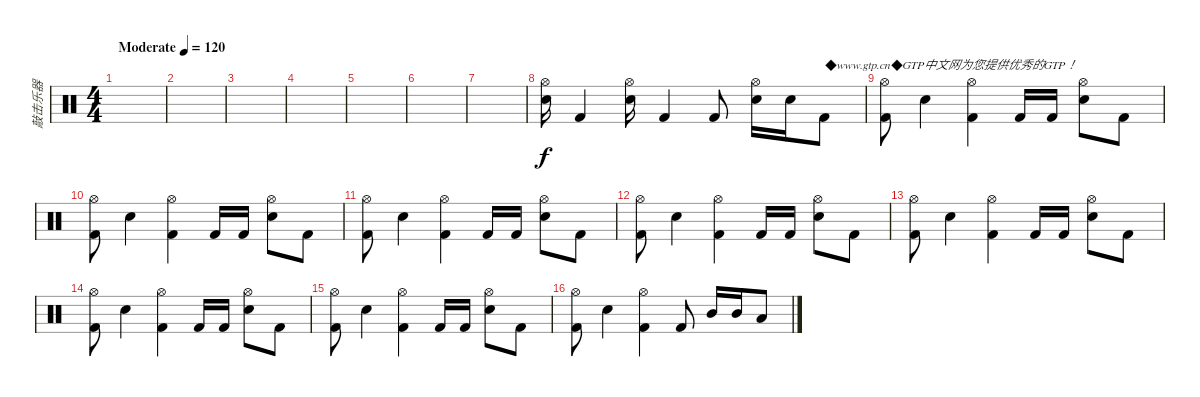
\track ("敲击乐器" "敲击乐器") {instrument percussion}
\staff {score}
\articulation defaults
\ts (4 4)
\tempo (120 "Moderate")
\clef neutral
\ks c
|
|
|
|
|
|
|
("Hi-Hat (open)" "Snare (hit) 2").16 "Kick (hit) 2".4 ("Hi-Hat (open)" "Snare (hit) 2").16 "Kick (hit) 2".4 "Kick (hit) 2".8 ("Hi-Hat (open)" "Snare (hit) 2").16 "Snare (hit) 2".16 "Kick (hit) 2".8{txt "◆www.gtp.cn◆GTP中文网为您提供优秀的GTP！"} |
("Hi-Hat (open)" "Kick (hit) 2").8 "Snare (hit) 2".4 ("Hi-Hat (open)" "Kick (hit) 2").4 "Kick (hit) 2".16 "Kick (hit) 2".16 ("Hi-Hat (open)" "Snare (hit) 2").8 "Kick (hit) 2".8 |
("Hi-Hat (open)" "Kick (hit) 2").8 "Snare (hit) 2".4 ("Hi-Hat (open)" "Kick (hit) 2").4 "Kick (hit) 2".16 "Kick (hit) 2".16 ("Hi-Hat (open)" "Snare (hit) 2").8 "Kick (hit) 2".8 |
("Hi-Hat (open)" "Kick (hit) 2").8 "Snare (hit) 2".4 ("Hi-Hat (open)" "Kick (hit) 2").4 "Kick (hit) 2".16 "Kick (hit) 2".16 ("Hi-Hat (open)" "Snare (hit) 2").8 "Kick (hit) 2".8 |
("Hi-Hat (open)" "Kick (hit) 2").8 "Snare (hit) 2".4 ("Hi-Hat (open)" "Kick (hit) 2").4 "Kick (hit) 2".16 "Kick (hit) 2".16 ("Hi-Hat (open)" "Snare (hit) 2").8 "Kick (hit) 2".8 |
("Hi-Hat (open)" "Kick (hit) 2").8 "Snare (hit) 2".4 ("Hi-Hat (open)" "Kick (hit) 2").4 "Kick (hit) 2".16 "Kick (hit) 2".16 ("Hi-Hat (open)" "Snare (hit) 2").8 "Kick (hit) 2".8 |
("Hi-Hat (open)" "Kick (hit) 2").8 "Snare (hit) 2".4 ("Hi-Hat (open)" "Kick (hit) 2").4 "Kick (hit) 2".16 "Kick (hit) 2".16 ("Hi-Hat (open)" "Snare (hit) 2").8 "Kick (hit) 2".8 |
("Hi-Hat (open)" "Kick (hit) 2").8 "Snare (hit) 2".4 ("Hi-Hat (open)" "Kick (hit) 2").4 "Kick (hit) 2".16 "Kick (hit) 2".16 ("Hi-Hat (open)" "Snare (hit) 2").8 "Kick (hit) 2".8 |
("Hi-Hat (open)" "Kick (hit) 2").8 "Snare (hit) 2".4 ("Hi-Hat (open)" "Kick (hit) 2").4 "Kick (hit) 2".8 "Mid Tom (hit)".16 "Mid Tom (hit)".16 "Low Floor Tom (hit)".8
